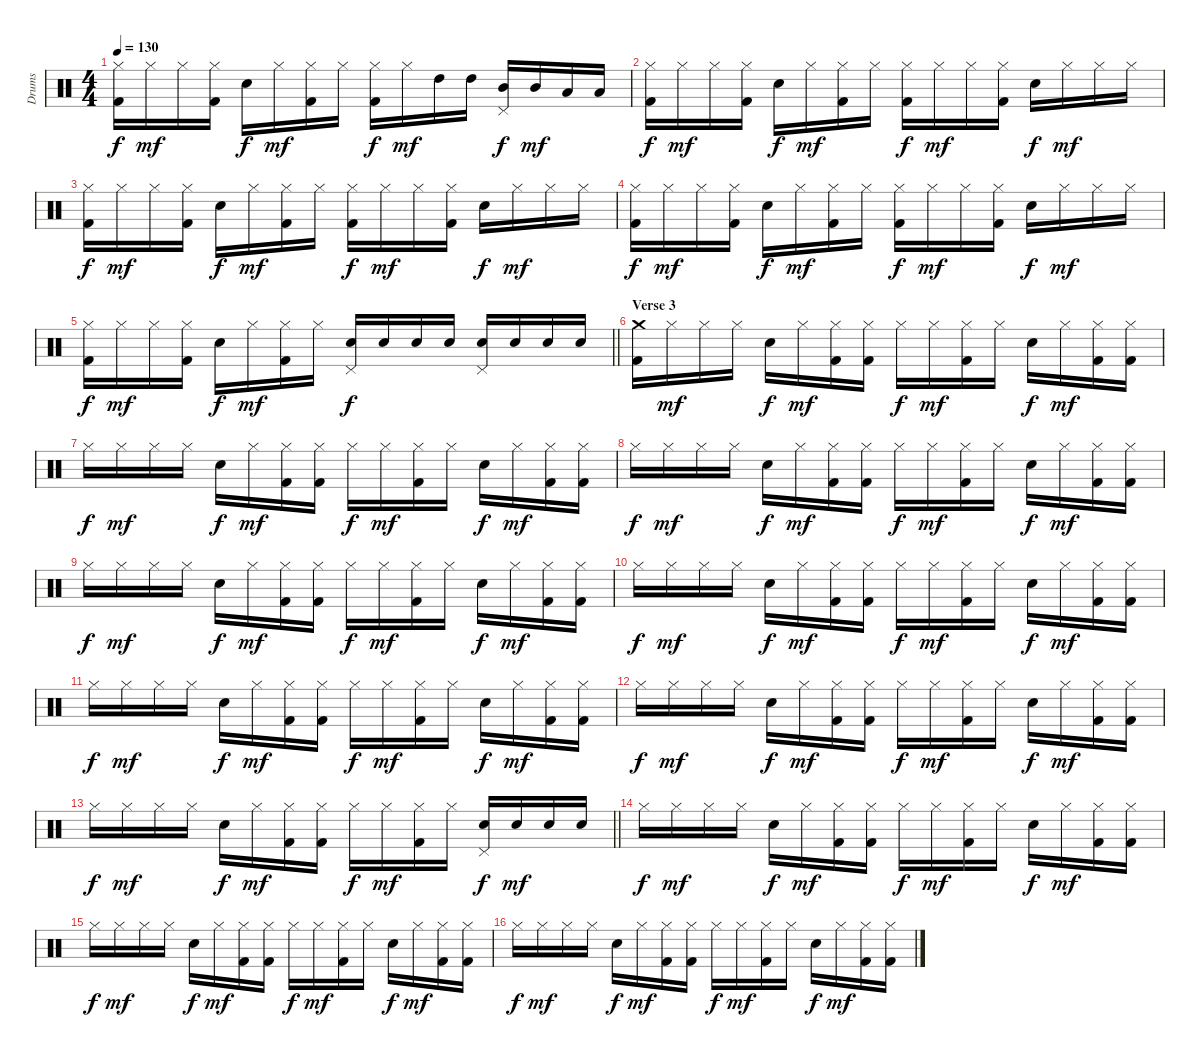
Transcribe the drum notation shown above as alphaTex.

\track ("Drums" "Drums") {instrument percussion}
\staff {score}
\articulation defaults
\ts (4 4)
\tempo 130
\clef neutral
\ks c
("Hi-Hat (closed)" "Kick (hit) 2").16{dy f} "Hi-Hat (closed)".16{dy mf} "Hi-Hat (closed)".16 ("Hi-Hat (closed)" "Kick (hit) 2").16 "Snare (hit) 2".16{dy f} "Hi-Hat (closed)".16{dy mf} ("Hi-Hat (closed)" "Kick (hit) 2").16 "Hi-Hat (closed)".16 ("Hi-Hat (closed)" "Kick (hit) 2").16{dy f} "Hi-Hat (closed)".16{dy mf} "High Tom (hit)".16 "High Tom (hit)".16 ("Pedal Hi-Hat (hit)" "Mid Tom (hit)").16{dy f} "Mid Tom (hit)".16{dy mf} "Low Tom (hit)".16 "Low Tom (hit)".16 |
("Hi-Hat (closed)" "Kick (hit) 2").16{dy f} "Hi-Hat (closed)".16{dy mf} "Hi-Hat (closed)".16 ("Hi-Hat (closed)" "Kick (hit) 2").16 "Snare (hit) 2".16{dy f} "Hi-Hat (closed)".16{dy mf} ("Hi-Hat (closed)" "Kick (hit) 2").16 "Hi-Hat (closed)".16 ("Hi-Hat (closed)" "Kick (hit) 2").16{dy f} "Hi-Hat (closed)".16{dy mf} "Hi-Hat (closed)".16 ("Hi-Hat (closed)" "Kick (hit) 2").16 "Snare (hit) 2".16{dy f} "Hi-Hat (closed)".16{dy mf} "Hi-Hat (closed)".16 "Hi-Hat (closed)".16 |
("Hi-Hat (closed)" "Kick (hit) 2").16{dy f} "Hi-Hat (closed)".16{dy mf} "Hi-Hat (closed)".16 ("Hi-Hat (closed)" "Kick (hit) 2").16 "Snare (hit) 2".16{dy f} "Hi-Hat (closed)".16{dy mf} ("Hi-Hat (closed)" "Kick (hit) 2").16 "Hi-Hat (closed)".16 ("Hi-Hat (closed)" "Kick (hit) 2").16{dy f} "Hi-Hat (closed)".16{dy mf} "Hi-Hat (closed)".16 ("Hi-Hat (closed)" "Kick (hit) 2").16 "Snare (hit) 2".16{dy f} "Hi-Hat (closed)".16{dy mf} "Hi-Hat (closed)".16 "Hi-Hat (closed)".16 |
("Hi-Hat (closed)" "Kick (hit) 2").16{dy f} "Hi-Hat (closed)".16{dy mf} "Hi-Hat (closed)".16 ("Hi-Hat (closed)" "Kick (hit) 2").16 "Snare (hit) 2".16{dy f} "Hi-Hat (closed)".16{dy mf} ("Hi-Hat (closed)" "Kick (hit) 2").16 "Hi-Hat (closed)".16 ("Hi-Hat (closed)" "Kick (hit) 2").16{dy f} "Hi-Hat (closed)".16{dy mf} "Hi-Hat (closed)".16 ("Hi-Hat (closed)" "Kick (hit) 2").16 "Snare (hit) 2".16{dy f} "Hi-Hat (closed)".16{dy mf} "Hi-Hat (closed)".16 "Hi-Hat (closed)".16 |
\barLineRight lightlight
("Hi-Hat (closed)" "Kick (hit) 2").16{dy f} "Hi-Hat (closed)".16{dy mf} "Hi-Hat (closed)".16 ("Hi-Hat (closed)" "Kick (hit) 2").16 "Snare (hit) 2".16{dy f} "Hi-Hat (closed)".16{dy mf} ("Hi-Hat (closed)" "Kick (hit) 2").16 "Hi-Hat (closed)".16{volume 6} ("Pedal Hi-Hat (hit)" "Snare (hit) 2").16{dy f volume 16} "Snare (hit) 2".16 "Snare (hit) 2".16 "Snare (hit) 2".16 ("Pedal Hi-Hat (hit)" "Snare (hit) 2").16 "Snare (hit) 2".16 "Snare (hit) 2".16 "Snare (hit) 2".16 |
\section ("" "Verse 3")
("Crash medium (hit)" "Kick (hit) 2").16{volume 13} "Hi-Hat (closed)".16{dy mf} "Hi-Hat (closed)".16 "Hi-Hat (closed)".16 "Snare (hit) 2".16{dy f} "Hi-Hat (closed)".16{dy mf} ("Hi-Hat (closed)" "Kick (hit) 2").16 ("Hi-Hat (closed)" "Kick (hit) 2").16 "Hi-Hat (closed)".16{dy f} "Hi-Hat (closed)".16{dy mf} ("Hi-Hat (closed)" "Kick (hit) 2").16 "Hi-Hat (closed)".16 "Snare (hit) 2".16{dy f} "Hi-Hat (closed)".16{dy mf} ("Hi-Hat (closed)" "Kick (hit) 2").16 ("Hi-Hat (closed)" "Kick (hit) 2").16 |
"Hi-Hat (closed)".16{dy f} "Hi-Hat (closed)".16{dy mf} "Hi-Hat (closed)".16 "Hi-Hat (closed)".16 "Snare (hit) 2".16{dy f} "Hi-Hat (closed)".16{dy mf} ("Hi-Hat (closed)" "Kick (hit) 2").16 ("Hi-Hat (closed)" "Kick (hit) 2").16 "Hi-Hat (closed)".16{dy f} "Hi-Hat (closed)".16{dy mf} ("Hi-Hat (closed)" "Kick (hit) 2").16 "Hi-Hat (closed)".16 "Snare (hit) 2".16{dy f} "Hi-Hat (closed)".16{dy mf} ("Hi-Hat (closed)" "Kick (hit) 2").16 ("Hi-Hat (closed)" "Kick (hit) 2").16 |
"Hi-Hat (closed)".16{dy f} "Hi-Hat (closed)".16{dy mf} "Hi-Hat (closed)".16 "Hi-Hat (closed)".16 "Snare (hit) 2".16{dy f} "Hi-Hat (closed)".16{dy mf} ("Hi-Hat (closed)" "Kick (hit) 2").16 ("Hi-Hat (closed)" "Kick (hit) 2").16 "Hi-Hat (closed)".16{dy f} "Hi-Hat (closed)".16{dy mf} ("Hi-Hat (closed)" "Kick (hit) 2").16 "Hi-Hat (closed)".16 "Snare (hit) 2".16{dy f} "Hi-Hat (closed)".16{dy mf} ("Hi-Hat (closed)" "Kick (hit) 2").16 ("Hi-Hat (closed)" "Kick (hit) 2").16 |
"Hi-Hat (closed)".16{dy f} "Hi-Hat (closed)".16{dy mf} "Hi-Hat (closed)".16 "Hi-Hat (closed)".16 "Snare (hit) 2".16{dy f} "Hi-Hat (closed)".16{dy mf} ("Hi-Hat (closed)" "Kick (hit) 2").16 ("Hi-Hat (closed)" "Kick (hit) 2").16 "Hi-Hat (closed)".16{dy f} "Hi-Hat (closed)".16{dy mf} ("Hi-Hat (closed)" "Kick (hit) 2").16 "Hi-Hat (closed)".16 "Snare (hit) 2".16{dy f} "Hi-Hat (closed)".16{dy mf} ("Hi-Hat (closed)" "Kick (hit) 2").16 ("Hi-Hat (closed)" "Kick (hit) 2").16 |
"Hi-Hat (closed)".16{dy f} "Hi-Hat (closed)".16{dy mf} "Hi-Hat (closed)".16 "Hi-Hat (closed)".16 "Snare (hit) 2".16{dy f} "Hi-Hat (closed)".16{dy mf} ("Hi-Hat (closed)" "Kick (hit) 2").16 ("Hi-Hat (closed)" "Kick (hit) 2").16 "Hi-Hat (closed)".16{dy f} "Hi-Hat (closed)".16{dy mf} ("Hi-Hat (closed)" "Kick (hit) 2").16 "Hi-Hat (closed)".16 "Snare (hit) 2".16{dy f} "Hi-Hat (closed)".16{dy mf} ("Hi-Hat (closed)" "Kick (hit) 2").16 ("Hi-Hat (closed)" "Kick (hit) 2").16 |
"Hi-Hat (closed)".16{dy f} "Hi-Hat (closed)".16{dy mf} "Hi-Hat (closed)".16 "Hi-Hat (closed)".16 "Snare (hit) 2".16{dy f} "Hi-Hat (closed)".16{dy mf} ("Hi-Hat (closed)" "Kick (hit) 2").16 ("Hi-Hat (closed)" "Kick (hit) 2").16 "Hi-Hat (closed)".16{dy f} "Hi-Hat (closed)".16{dy mf} ("Hi-Hat (closed)" "Kick (hit) 2").16 "Hi-Hat (closed)".16 "Snare (hit) 2".16{dy f} "Hi-Hat (closed)".16{dy mf} ("Hi-Hat (closed)" "Kick (hit) 2").16 ("Hi-Hat (closed)" "Kick (hit) 2").16 |
"Hi-Hat (closed)".16{dy f} "Hi-Hat (closed)".16{dy mf} "Hi-Hat (closed)".16 "Hi-Hat (closed)".16 "Snare (hit) 2".16{dy f} "Hi-Hat (closed)".16{dy mf} ("Hi-Hat (closed)" "Kick (hit) 2").16 ("Hi-Hat (closed)" "Kick (hit) 2").16 "Hi-Hat (closed)".16{dy f} "Hi-Hat (closed)".16{dy mf} ("Hi-Hat (closed)" "Kick (hit) 2").16 "Hi-Hat (closed)".16 "Snare (hit) 2".16{dy f} "Hi-Hat (closed)".16{dy mf} ("Hi-Hat (closed)" "Kick (hit) 2").16 ("Hi-Hat (closed)" "Kick (hit) 2").16 |
\barLineRight lightlight "Hi-Hat (closed)".16{dy f} "Hi-Hat (closed)".16{dy mf} "Hi-Hat (closed)".16 "Hi-Hat (closed)".16 "Snare (hit) 2".16{dy f} "Hi-Hat (closed)".16{dy mf}
("Hi-Hat (closed)" "Kick (hit) 2").16 ("Hi-Hat (closed)" "Kick (hit) 2").16 "Hi-Hat (closed)".16{dy f} "Hi-Hat (closed)".16{dy mf} ("Hi-Hat (closed)" "Kick (hit) 2").16 "Hi-Hat (closed)".16 ("Pedal Hi-Hat (hit)" "Snare (hit) 2").16{dy f} "Snare (hit) 2".16{dy mf} "Snare (hit) 2".16 "Snare (hit) 2".16 |
"Hi-Hat (closed)".16{dy f} "Hi-Hat (closed)".16{dy mf} "Hi-Hat (closed)".16 "Hi-Hat (closed)".16 "Snare (hit) 2".16{dy f} "Hi-Hat (closed)".16{dy mf} ("Hi-Hat (closed)" "Kick (hit) 2").16 ("Hi-Hat (closed)" "Kick (hit) 2").16 "Hi-Hat (closed)".16{dy f} "Hi-Hat (closed)".16{dy mf} ("Hi-Hat (closed)" "Kick (hit) 2").16 "Hi-Hat (closed)".16 "Snare (hit) 2".16{dy f} "Hi-Hat (closed)".16{dy mf} ("Hi-Hat (closed)" "Kick (hit) 2").16 ("Hi-Hat (closed)" "Kick (hit) 2").16 |
"Hi-Hat (closed)".16{dy f} "Hi-Hat (closed)".16{dy mf} "Hi-Hat (closed)".16 "Hi-Hat (closed)".16 "Snare (hit) 2".16{dy f} "Hi-Hat (closed)".16{dy mf} ("Hi-Hat (closed)" "Kick (hit) 2").16 ("Hi-Hat (closed)" "Kick (hit) 2").16 "Hi-Hat (closed)".16{dy f} "Hi-Hat (closed)".16{dy mf} ("Hi-Hat (closed)" "Kick (hit) 2").16 "Hi-Hat (closed)".16 "Snare (hit) 2".16{dy f} "Hi-Hat (closed)".16{dy mf} ("Hi-Hat (closed)" "Kick (hit) 2").16 ("Hi-Hat (closed)" "Kick (hit) 2").16 |
"Hi-Hat (closed)".16{dy f} "Hi-Hat (closed)".16{dy mf} "Hi-Hat (closed)".16 "Hi-Hat (closed)".16 "Snare (hit) 2".16{dy f} "Hi-Hat (closed)".16{dy mf} ("Hi-Hat (closed)" "Kick (hit) 2").16 ("Hi-Hat (closed)" "Kick (hit) 2").16 "Hi-Hat (closed)".16{dy f} "Hi-Hat (closed)".16{dy mf} ("Hi-Hat (closed)" "Kick (hit) 2").16 "Hi-Hat (closed)".16 "Snare (hit) 2".16{dy f} "Hi-Hat (closed)".16{dy mf} ("Hi-Hat (closed)" "Kick (hit) 2").16 ("Hi-Hat (closed)" "Kick (hit) 2").16
